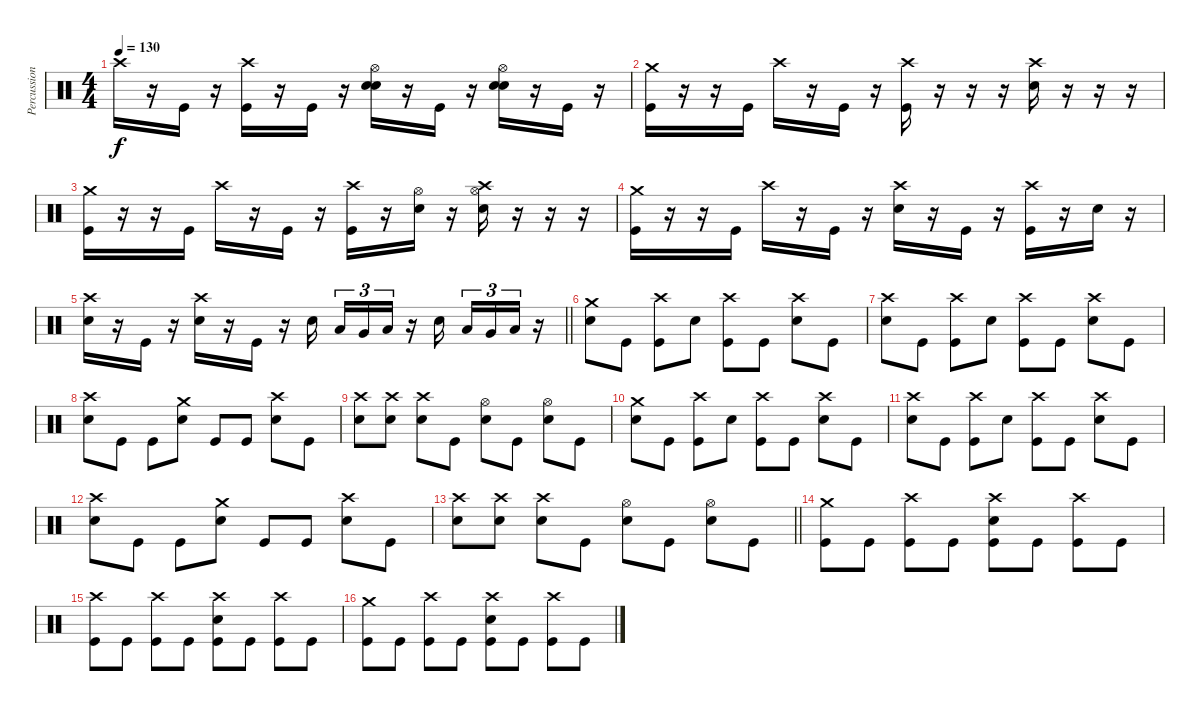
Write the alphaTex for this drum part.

\track ("Percussion" "Percussion") {instrument percussion}
\staff {score}
\articulation defaults
\ts (4 4)
\tempo 130
\clef neutral
\ks c "Crash high (hit)".16{dy f}
r.16 "Kick (hit)".16 r.16 ("Crash high (hit)" "Kick (hit)").16 r.16 "Kick (hit)".16 r.16 ("Hi-Hat (open)" "Snare (hit) 2" "Electric Snare (hit)").16{bd 120} r.16 "Kick (hit)".16 r.16 ("Hi-Hat (open)" "Snare (hit) 2" "Electric Snare (hit)").16{bd 120} r.16 "Kick (hit)".16 r.16 |
("Crash medium (hit)" "Kick (hit)").16 r.16 r.16 "Kick (hit)".16 "Crash high (hit)".16 r.16 "Kick (hit)".16 r.16 ("Crash high (hit)" "Kick (hit)").16 r.16 r.16 r.16 ("Crash high (hit)" "Electric Snare (hit)").16 r.16 r.16 r.16 |
("Crash medium (hit)" "Kick (hit)").16 r.16 r.16 "Kick (hit)".16 "Crash high (hit)".16 r.16 "Kick (hit)".16 r.16 ("Crash high (hit)" "Kick (hit)").16 r.16 ("Hi-Hat (open)" "Electric Snare (hit)").16 r.16 ("Hi-Hat (open)" "Crash high (hit)" "Electric Snare (hit)").16 r.16 r.16 r.16 |
("Crash medium (hit)" "Kick (hit)").16 r.16 r.16 "Kick (hit)".16 "Crash high (hit)".16 r.16 "Kick (hit)".16 r.16 ("Crash high (hit)" "Electric Snare (hit)").16 r.16 "Kick (hit)".16 r.16 ("Crash high (hit)" "Kick (hit)").16 r.16 "Electric Snare (hit)".16 r.16 |
\barLineRight lightlight
("Crash high (hit)" "Electric Snare (hit)").16 r.16 "Kick (hit)".16 r.16 ("Crash high (hit)" "Electric Snare (hit)").16 r.16 "Kick (hit)".16 r.16 "Electric Snare (hit)".16{beam splitsecondary} "Low Tom (hit)".16{tu (3 2)} "Very Low Tom (hit)".16{tu (3 2)} "Low Floor Tom (hit)".16{tu (3 2)} r.16 "Electric Snare (hit)".16{beam splitsecondary} "Low Tom (hit)".16{tu (3 2)} "Very Low Tom (hit)".16{tu (3 2)} "Low Floor Tom (hit)".16{tu (3 2)} r.16 |
\section ("" "")
("Crash medium (hit)" "Electric Snare (hit)").8 "Kick (hit)".8 ("Crash high (hit)" "Kick (hit)").8 "Electric Snare (hit)".8 ("Crash high (hit)" "Kick (hit)").8 "Kick (hit)".8 ("Crash high (hit)" "Electric Snare (hit)").8 "Kick (hit)".8 |
("Crash high (hit)" "Electric Snare (hit)").8 "Kick (hit)".8 ("Crash high (hit)" "Kick (hit)").8 "Electric Snare (hit)".8 ("Crash high (hit)" "Kick (hit)").8 "Kick (hit)".8 ("Crash high (hit)" "Electric Snare (hit)").8 "Kick (hit)".8 |
("Crash high (hit)" "Electric Snare (hit)").8 "Kick (hit)".8 "Kick (hit)".8 ("Crash medium (hit)" "Electric Snare (hit)").8 "Kick (hit)".8 "Kick (hit)".8 ("Crash high (hit)" "Electric Snare (hit)").8 "Kick (hit)".8 |
("Crash high (hit)" "Electric Snare (hit)").8 ("Crash high (hit)" "Electric Snare (hit)").8 ("Crash high (hit)" "Electric Snare (hit)").8 "Kick (hit)".8 ("Hi-Hat (open)" "Electric Snare (hit)").8 "Kick (hit)".8 ("Hi-Hat (open)" "Electric Snare (hit)").8 "Kick (hit)".8 |
("Crash medium (hit)" "Electric Snare (hit)").8 "Kick (hit)".8 ("Crash high (hit)" "Kick (hit)").8 "Electric Snare (hit)".8 ("Crash high (hit)" "Kick (hit)").8 "Kick (hit)".8 ("Crash high (hit)" "Electric Snare (hit)").8 "Kick (hit)".8 |
("Crash high (hit)" "Electric Snare (hit)").8 "Kick (hit)".8 ("Crash high (hit)" "Kick (hit)").8 "Electric Snare (hit)".8 ("Crash high (hit)" "Kick (hit)").8 "Kick (hit)".8 ("Crash high (hit)" "Electric Snare (hit)").8 "Kick (hit)".8 |
("Crash high (hit)" "Electric Snare (hit)").8 "Kick (hit)".8 "Kick (hit)".8 ("Crash medium (hit)" "Electric Snare (hit)").8 "Kick (hit)".8 "Kick (hit)".8 ("Crash high (hit)" "Electric Snare (hit)").8 "Kick (hit)".8 |
\barLineRight lightlight
("Crash high (hit)" "Electric Snare (hit)").8 ("Crash high (hit)" "Electric Snare (hit)").8 ("Crash high (hit)" "Electric Snare (hit)").8 "Kick (hit)".8 ("Hi-Hat (open)" "Electric Snare (hit)").8 "Kick (hit)".8 ("Hi-Hat (open)" "Electric Snare (hit)").8 "Kick (hit)".8 |
\section ("" "")
("Crash medium (hit)" "Kick (hit)").8 "Kick (hit)".8 ("Crash high (hit)" "Kick (hit)").8 "Kick (hit)".8 ("Crash high (hit)" "Electric Snare (hit)" "Kick (hit)").8 "Kick (hit)".8 ("Crash high (hit)" "Kick (hit)").8 "Kick (hit)".8 |
("Crash high (hit)" "Kick (hit)").8 "Kick (hit)".8 ("Crash high (hit)" "Kick (hit)").8 "Kick (hit)".8 ("Crash high (hit)" "Electric Snare (hit)" "Kick (hit)").8 "Kick (hit)".8 ("Crash high (hit)" "Kick (hit)").8 "Kick (hit)".8 |
("Crash medium (hit)" "Kick (hit)").8 "Kick (hit)".8 ("Crash high (hit)" "Kick (hit)").8 "Kick (hit)".8 ("Crash high (hit)" "Electric Snare (hit)" "Kick (hit)").8 "Kick (hit)".8 ("Crash high (hit)" "Kick (hit)").8 "Kick (hit)".8
